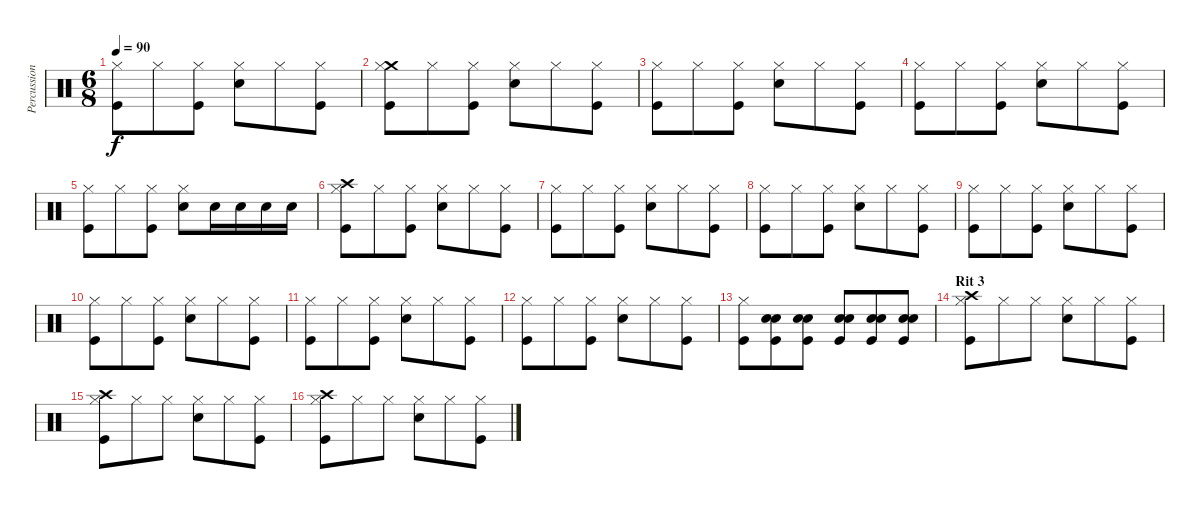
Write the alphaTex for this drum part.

\track ("Percussioni" "Percussion") {instrument percussion}
\staff {score}
\articulation defaults
\ts (6 8)
\tempo 90
\clef neutral
\ks c
("Hi-Hat (closed)" "Kick (hit)").8{dy f} "Hi-Hat (closed)".8 ("Hi-Hat (closed)" "Kick (hit)").8 ("Hi-Hat (closed)" "Snare (hit) 2").8 "Hi-Hat (closed)".8 ("Hi-Hat (closed)" "Kick (hit)").8 |
("Crash medium (hit)" "Hi-Hat (closed)" "Kick (hit)").8 "Hi-Hat (closed)".8 ("Hi-Hat (closed)" "Kick (hit)").8 ("Hi-Hat (closed)" "Snare (hit) 2").8 "Hi-Hat (closed)".8 ("Hi-Hat (closed)" "Kick (hit)").8 |
("Hi-Hat (closed)" "Kick (hit)").8 "Hi-Hat (closed)".8 ("Hi-Hat (closed)" "Kick (hit)").8 ("Hi-Hat (closed)" "Snare (hit) 2").8 "Hi-Hat (closed)".8 ("Hi-Hat (closed)" "Kick (hit)").8 |
("Hi-Hat (closed)" "Kick (hit)").8 "Hi-Hat (closed)".8 ("Hi-Hat (closed)" "Kick (hit)").8 ("Hi-Hat (closed)" "Snare (hit) 2").8 "Hi-Hat (closed)".8 ("Hi-Hat (closed)" "Kick (hit)").8 |
("Hi-Hat (closed)" "Kick (hit)").8 "Hi-Hat (closed)".8 ("Hi-Hat (closed)" "Kick (hit)").8 ("Hi-Hat (closed)" "Snare (hit) 2").8 "Snare (hit) 2".16 "Snare (hit) 2".16 "Snare (hit) 2".16 "Snare (hit) 2".16 |
("Crash high (hit)" "Hi-Hat (closed)" "Kick (hit)").8 "Hi-Hat (closed)".8 ("Hi-Hat (closed)" "Kick (hit)").8 ("Hi-Hat (closed)" "Snare (hit) 2").8 "Hi-Hat (closed)".8 ("Hi-Hat (closed)" "Kick (hit)").8 |
("Hi-Hat (closed)" "Kick (hit)").8 "Hi-Hat (closed)".8 ("Hi-Hat (closed)" "Kick (hit)").8 ("Hi-Hat (closed)" "Snare (hit) 2").8 "Hi-Hat (closed)".8 ("Hi-Hat (closed)" "Kick (hit)").8 |
("Hi-Hat (closed)" "Kick (hit)").8 "Hi-Hat (closed)".8 ("Hi-Hat (closed)" "Kick (hit)").8 ("Hi-Hat (closed)" "Snare (hit) 2").8 "Hi-Hat (closed)".8 ("Hi-Hat (closed)" "Kick (hit)").8 |
("Hi-Hat (closed)" "Kick (hit)").8 "Hi-Hat (closed)".8 ("Hi-Hat (closed)" "Kick (hit)").8 ("Hi-Hat (closed)" "Snare (hit) 2").8 "Hi-Hat (closed)".8 ("Hi-Hat (closed)" "Kick (hit)").8 |
("Hi-Hat (closed)" "Kick (hit)").8 "Hi-Hat (closed)".8 ("Hi-Hat (closed)" "Kick (hit)").8 ("Hi-Hat (closed)" "Snare (hit) 2").8 "Hi-Hat (closed)".8 ("Hi-Hat (closed)" "Kick (hit)").8 |
("Hi-Hat (closed)" "Kick (hit)").8 "Hi-Hat (closed)".8 ("Hi-Hat (closed)" "Kick (hit)").8 ("Hi-Hat (closed)" "Snare (hit) 2").8 "Hi-Hat (closed)".8 ("Hi-Hat (closed)" "Kick (hit)").8 |
("Hi-Hat (closed)" "Kick (hit)").8 "Hi-Hat (closed)".8 ("Hi-Hat (closed)" "Kick (hit)").8 ("Hi-Hat (closed)" "Snare (hit) 2").8 "Hi-Hat (closed)".8 ("Hi-Hat (closed)" "Kick (hit)").8 |
("Hi-Hat (closed)" "Kick (hit)").8 ("Snare (hit) 2" "Snare (hit) 2" "Kick (hit)").8 ("Snare (hit) 2" "Snare (hit) 2" "Kick (hit)").8 ("Snare (hit) 2" "Snare (hit) 2" "Kick (hit)").8 ("Snare (hit) 2" "Snare (hit) 2" "Kick (hit)").8 ("Snare (hit) 2" "Snare (hit) 2" "Kick (hit)").8 |
\section ("" "Rit 3")
("Crash high (hit)" "Hi-Hat (closed)" "Kick (hit)").8 "Hi-Hat (closed)".8 "Hi-Hat (closed)".8 ("Hi-Hat (closed)" "Snare (hit) 2").8 "Hi-Hat (closed)".8 ("Hi-Hat (closed)" "Kick (hit)").8 |
("Crash high (hit)" "Hi-Hat (closed)" "Kick (hit)").8 "Hi-Hat (closed)".8 "Hi-Hat (closed)".8 ("Hi-Hat (closed)" "Snare (hit) 2").8 "Hi-Hat (closed)".8 ("Hi-Hat (closed)" "Kick (hit)").8 |
("Crash high (hit)" "Hi-Hat (closed)" "Kick (hit)").8 "Hi-Hat (closed)".8 "Hi-Hat (closed)".8 ("Hi-Hat (closed)" "Snare (hit) 2").8 "Hi-Hat (closed)".8 ("Hi-Hat (closed)" "Kick (hit)").8
